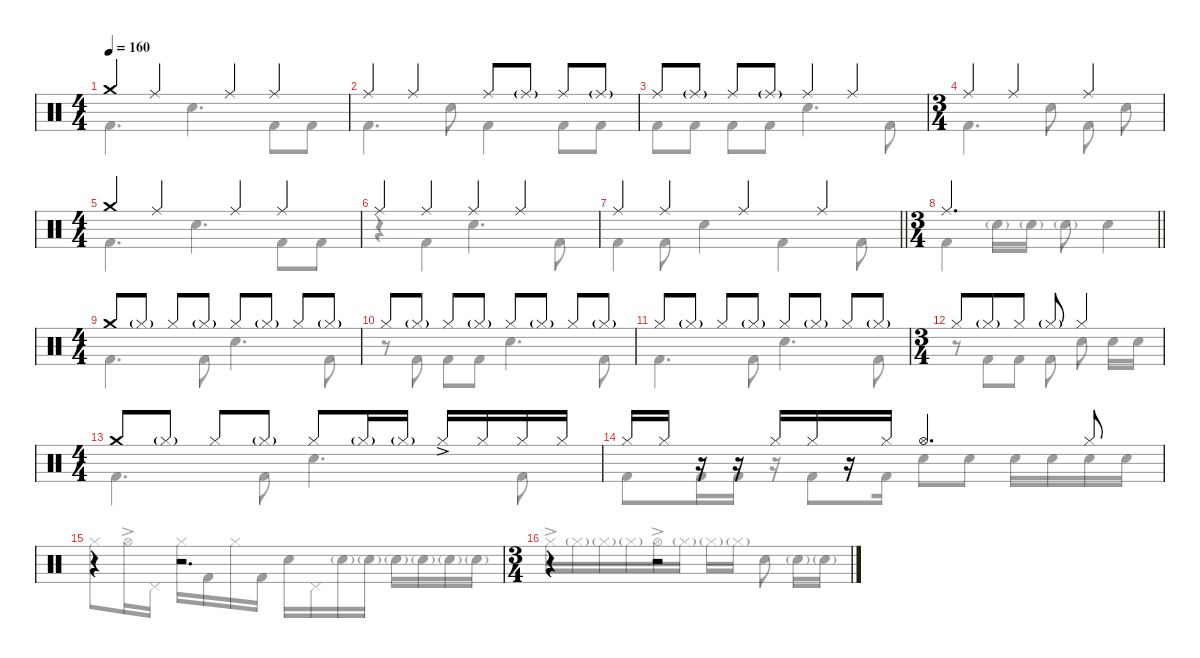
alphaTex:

\defaultSystemsLayout 4
\hideDynamics
\bracketExtendMode nobrackets
\singleTrackTrackNamePolicy hidden
\multiTrackTrackNamePolicy hidden
\firstSystemTrackNameMode fullname
\firstSystemTrackNameOrientation horizontal
\otherSystemsTrackNameOrientation horizontal
\track ("Drums" "drm.") {instrument percussion}
\staff {score}
\articulation defaults
\voice
\ts (4 4)
\beaming (8 2 2 2 2)
\tempo 160
\clef neutral
\ks c "Crash medium (hit)".4{dy f beam Up} "Ride (middle)".4{beam Up} "Ride (middle)".4{beam Up} "Ride (middle)".4{beam Up}
|
"Ride (middle)".4{beam Up} "Ride (middle)".4{beam Up} "Ride (middle)".8{beam Up} "Ride (middle)"{g}.8{dy ff beam Up} "Ride (middle)".8{dy f beam Up} "Ride (middle)"{g}.8{dy ff beam Up} |
"Ride (middle)".8{dy f beam Up} "Ride (middle)"{g}.8{dy ff beam Up} "Ride (middle)".8{dy f beam Up} "Ride (middle)"{g}.8{dy ff beam Up} "Ride (middle)".4{dy f beam Up} "Ride (middle)".4{beam Up} |
\ts (3 4)
\beaming (8 3 1 1 1)
"Ride (middle)".4{beam Up} "Ride (middle)".4{beam Up} "Ride (middle)".4{beam Up} |
\ts (4 4)
\beaming (8 2 2 2 2)
"Crash medium (hit)".4{beam Up} "Ride (middle)".4{beam Up} "Ride (middle)".4{beam Up} "Ride (middle)".4{beam Up} |
"Ride (middle)".4{beam Up} "Ride (middle)".4{beam Up} "Ride (middle)".4{beam Up} "Ride (middle)".4{beam Up} |
\barLineRight lightlight "Ride (middle)".4{beam Up} "Ride (middle)".4{beam Up} "Ride (middle)".4{beam Up} "Ride (middle)".4{beam Up}
|
\ts (3 4)
\beaming (8 3 1 1 1)
\barLineRight lightlight "Ride (middle)".2{d beam Up}
|
\ts (4 4)
\beaming (8 2 2 2 2)
"Crash medium (hit)".8{beam Up} "Hi-Hat (closed)"{g}.8{dy ff beam Up} "Hi-Hat (closed)".8{dy f beam Up} "Hi-Hat (closed)"{g}.8{dy ff beam Up} "Hi-Hat (closed)".8{dy f beam Up} "Hi-Hat (closed)"{g}.8{dy ff beam Up} "Hi-Hat (closed)".8{dy f beam Up} "Hi-Hat (closed)"{g}.8{dy ff beam Up} |
"Hi-Hat (closed)".8{dy f beam Up} "Hi-Hat (closed)"{g}.8{dy ff beam Up} "Hi-Hat (closed)".8{dy f beam Up} "Hi-Hat (closed)"{g}.8{dy ff beam Up} "Hi-Hat (closed)".8{dy f beam Up} "Hi-Hat (closed)"{g}.8{dy ff beam Up} "Hi-Hat (closed)".8{dy f beam Up} "Hi-Hat (closed)"{g}.8{dy ff beam Up} |
"Hi-Hat (closed)".8{dy f beam Up} "Hi-Hat (closed)"{g}.8{dy ff beam Up} "Hi-Hat (closed)".8{dy f beam Up} "Hi-Hat (closed)"{g}.8{dy ff beam Up} "Hi-Hat (closed)".8{dy f beam Up} "Hi-Hat (closed)"{g}.8{dy ff beam Up} "Hi-Hat (closed)".8{dy f beam Up} "Hi-Hat (closed)"{g}.8{dy ff beam Up} |
\ts (3 4)
\beaming (8 3 1 1 1)
"Hi-Hat (closed)".8{dy f beam Up} "Hi-Hat (closed)"{g}.8{dy ff beam Up} "Hi-Hat (closed)".8{dy f beam Up} "Hi-Hat (closed)"{g}.8{dy ff beam Up} "Hi-Hat (closed)".4{dy f beam Up} |
\ts (4 4)
\beaming (8 2 2 2 2)
"Crash medium (hit)".8{beam Up} "Hi-Hat (closed)"{g}.8{dy ff beam Up} "Hi-Hat (closed)".8{dy f beam Up} "Hi-Hat (closed)"{g}.8{dy ff beam Up} "Hi-Hat (closed)".8{dy f beam Up} "Hi-Hat (closed)"{g}.16{dy ff beam Up} "Hi-Hat (closed)"{g}.16{beam Up} "Hi-Hat (closed)"{ac}.16{dy mf beam Up} "Hi-Hat (closed)".16{dy f beam Up} "Hi-Hat (closed)".16{beam Up} "Hi-Hat (closed)".16{beam Up} |
"Hi-Hat (closed)".16{beam Up} "Hi-Hat (closed)".16{beam Up} r.16{beam Up} r.16{beam Up} "Hi-Hat (closed)".16{beam Up} "Hi-Hat (closed)".16{beam Up} r.16{beam Up} "Hi-Hat (closed)".16{beam Up} "Hi-Hat (open)".4{d beam Up} "Hi-Hat (closed)".8{beam Up} |
r.4{beam Up} r.2{d beam Up} |
\ts (3 4)
\beaming (8 3 1 1 1)
r.4{beam Up} r.2{beam Up}
\voice
\clef neutral
\ottava regular
\simile none
\ks c "Kick (hit) 2".4{d dy f beam Down} "Snare (hit) 2".4{d beam Down} "Kick (hit) 2".8{beam Down} "Kick (hit) 2".8{beam Down}
|
"Kick (hit) 2".4{d beam Down} "Snare (hit) 2".8{beam Down} "Kick (hit) 2".4{beam Down} "Kick (hit) 2".8{beam Down} "Kick (hit) 2".8{beam Down} |
"Kick (hit) 2".8{beam Down} "Kick (hit) 2".8{beam Down} "Kick (hit) 2".8{beam Down} "Kick (hit) 2".8{beam Down} "Snare (hit) 2".4{d beam Down} "Kick (hit) 2".8{beam Down} |
"Kick (hit) 2".4{d beam Down} "Snare (hit) 2".8{beam Down} "Kick (hit) 2".8{beam Down} "Snare (hit) 2".8{beam Down} |
"Kick (hit) 2".4{d beam Down} "Snare (hit) 2".4{d beam Down} "Kick (hit) 2".8{beam Down} "Kick (hit) 2".8{beam Down} |
r.4{beam Down} "Kick (hit) 2".4{beam Down} "Snare (hit) 2".4{d beam Down} "Kick (hit) 2".8{beam Down} |
\barLineRight lightlight "Kick (hit) 2".4{beam Down} "Kick (hit) 2".8{beam Down} "Snare (hit) 2".4{beam Down} "Kick (hit) 2".4{beam Down} "Kick (hit) 2".8{beam Down}
|
\barLineRight lightlight "Kick (hit) 2".4{beam Down} "Snare (hit) 2"{g}.16{dy ff beam Down} "Snare (hit) 2"{g}.16{beam Down} "Snare (hit) 2"{g}.8{beam Down} "Snare (hit) 2".4{dy f beam Down}
|
"Kick (hit) 2".4{d beam Down} "Kick (hit) 2".8{beam Down} "Snare (hit) 2".4{d beam Down} "Kick (hit) 2".8{beam Down} |
r.8{beam Down} "Kick (hit) 2".8{beam Down} "Kick (hit) 2".8{beam Down} "Kick (hit) 2".8{beam Down} "Snare (hit) 2".4{d beam Down} "Kick (hit) 2".8{beam Down} |
"Kick (hit) 2".4{d beam Down} "Kick (hit) 2".8{beam Down} "Snare (hit) 2".4{d beam Down} "Kick (hit) 2".8{beam Down} |
r.8{beam Down} "Kick (hit) 2".8{beam Down} "Kick (hit) 2".8{beam Down} "Kick (hit) 2".8{beam Down} "Snare (hit) 2".8{beam Down} "Snare (hit) 2".16{beam Down} "Snare (hit) 2".16{beam Down} |
"Kick (hit) 2".4{d beam Down} "Kick (hit) 2".8{beam Down} "Snare (hit) 2".4{d beam Down} "Kick (hit) 2".8{beam Down} |
"Kick (hit) 2".8{beam Down} "Kick (hit) 2".16{beam Down} "Kick (hit) 2".16{beam Down} r.16{beam Down} "Kick (hit) 2".8{beam Down} "Kick (hit) 2".16{beam Down} "Snare (hit) 2".8{beam Down} "Snare (hit) 2".8{beam Down} "Snare (hit) 2".16{dy mp beam Down} "Snare (hit) 2".16{beam Down} "Snare (hit) 2".16{beam Down} "Snare (hit) 2".16{beam Down} |
"Hi-Hat (closed)".8{dy f beam Down} "Hi-Hat (open)"{ac}.16{dy mf beam Down} "Pedal Hi-Hat (hit)".16{dy f beam Down} "Hi-Hat (closed)".16{beam Down} "Kick (hit) 2".16{beam Down} "Hi-Hat (closed)".16{beam Down} "Kick (hit) 2".16{beam Down} "Snare (hit) 2".16{beam Down} "Pedal Hi-Hat (hit)".16{beam Down} "Snare (hit) 2"{g}.16{dy mf beam Down} "Snare (hit) 2"{g}.16{beam Down} "Snare (hit) 2"{g}.16{beam Down} "Snare (hit) 2"{g}.16{beam Down} "Snare (hit) 2"{g}.16{beam Down} "Snare (hit) 2"{g}.16{beam Down} |
"Hi-Hat (closed)"{ac}.16{beam Down} "Hi-Hat (closed)"{g}.16{dy ff beam Down} "Hi-Hat (closed)"{g}.16{beam Down} "Hi-Hat (closed)"{g}.16{beam Down} "Hi-Hat (open)"{ac}.16{dy mf beam Down} "Hi-Hat (closed)"{g}.16{dy ff beam Down} "Hi-Hat (closed)"{g}.16{beam Down} "Hi-Hat (closed)"{g}.16{beam Down} "Snare (hit) 2".8{dy f beam Down} "Snare (hit) 2"{g}.16{dy mf beam Down} "Snare (hit) 2"{g}.16{beam Down}
